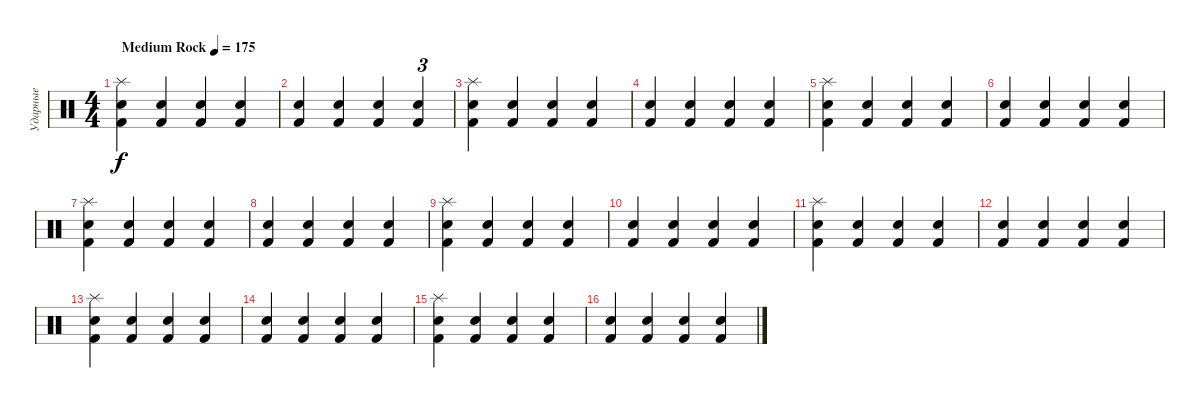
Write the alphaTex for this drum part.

\track ("Ударные" "Ударные") {instrument percussion}
\staff {score}
\articulation defaults
\ts (4 4)
\tempo (175 "Medium Rock")
\clef neutral
\ks c
("Kick (hit) 2" "Snare (hit) 2" "Splash (hit)").4{dy f} ("Kick (hit) 2" "Snare (hit) 2").4 ("Kick (hit) 2" "Snare (hit) 2").4 ("Kick (hit) 2" "Snare (hit) 2").4 |
("Kick (hit) 2" "Snare (hit) 2").4 ("Kick (hit) 2" "Snare (hit) 2").4 ("Kick (hit) 2" "Snare (hit) 2").4 ("Kick (hit) 2" "Snare (hit) 2").4{tu (3 2)} |
("Kick (hit) 2" "Snare (hit) 2" "Splash (hit)").4 ("Kick (hit) 2" "Snare (hit) 2").4 ("Kick (hit) 2" "Snare (hit) 2").4 ("Kick (hit) 2" "Snare (hit) 2").4 |
("Kick (hit) 2" "Snare (hit) 2").4 ("Kick (hit) 2" "Snare (hit) 2").4 ("Kick (hit) 2" "Snare (hit) 2").4 ("Kick (hit) 2" "Snare (hit) 2").4 |
("Kick (hit) 2" "Snare (hit) 2" "Splash (hit)").4 ("Kick (hit) 2" "Snare (hit) 2").4 ("Kick (hit) 2" "Snare (hit) 2").4 ("Kick (hit) 2" "Snare (hit) 2").4 |
("Kick (hit) 2" "Snare (hit) 2").4 ("Kick (hit) 2" "Snare (hit) 2").4 ("Kick (hit) 2" "Snare (hit) 2").4 ("Kick (hit) 2" "Snare (hit) 2").4 |
("Kick (hit) 2" "Snare (hit) 2" "Splash (hit)").4 ("Kick (hit) 2" "Snare (hit) 2").4 ("Kick (hit) 2" "Snare (hit) 2").4 ("Kick (hit) 2" "Snare (hit) 2").4 |
("Kick (hit) 2" "Snare (hit) 2").4 ("Kick (hit) 2" "Snare (hit) 2").4 ("Kick (hit) 2" "Snare (hit) 2").4 ("Kick (hit) 2" "Snare (hit) 2").4 |
("Kick (hit) 2" "Snare (hit) 2" "Splash (hit)").4 ("Kick (hit) 2" "Snare (hit) 2").4 ("Kick (hit) 2" "Snare (hit) 2").4 ("Kick (hit) 2" "Snare (hit) 2").4 |
("Kick (hit) 2" "Snare (hit) 2").4 ("Kick (hit) 2" "Snare (hit) 2").4 ("Kick (hit) 2" "Snare (hit) 2").4 ("Kick (hit) 2" "Snare (hit) 2").4 |
("Kick (hit) 2" "Snare (hit) 2" "Splash (hit)").4 ("Kick (hit) 2" "Snare (hit) 2").4 ("Kick (hit) 2" "Snare (hit) 2").4 ("Kick (hit) 2" "Snare (hit) 2").4 |
("Kick (hit) 2" "Snare (hit) 2").4 ("Kick (hit) 2" "Snare (hit) 2").4 ("Kick (hit) 2" "Snare (hit) 2").4 ("Kick (hit) 2" "Snare (hit) 2").4 |
("Kick (hit) 2" "Snare (hit) 2" "Splash (hit)").4 ("Kick (hit) 2" "Snare (hit) 2").4 ("Kick (hit) 2" "Snare (hit) 2").4 ("Kick (hit) 2" "Snare (hit) 2").4 |
("Kick (hit) 2" "Snare (hit) 2").4 ("Kick (hit) 2" "Snare (hit) 2").4 ("Kick (hit) 2" "Snare (hit) 2").4 ("Kick (hit) 2" "Snare (hit) 2").4 |
("Kick (hit) 2" "Snare (hit) 2" "Splash (hit)").4 ("Kick (hit) 2" "Snare (hit) 2").4 ("Kick (hit) 2" "Snare (hit) 2").4 ("Kick (hit) 2" "Snare (hit) 2").4 |
("Kick (hit) 2" "Snare (hit) 2").4 ("Kick (hit) 2" "Snare (hit) 2").4 ("Kick (hit) 2" "Snare (hit) 2").4 ("Kick (hit) 2" "Snare (hit) 2").4
